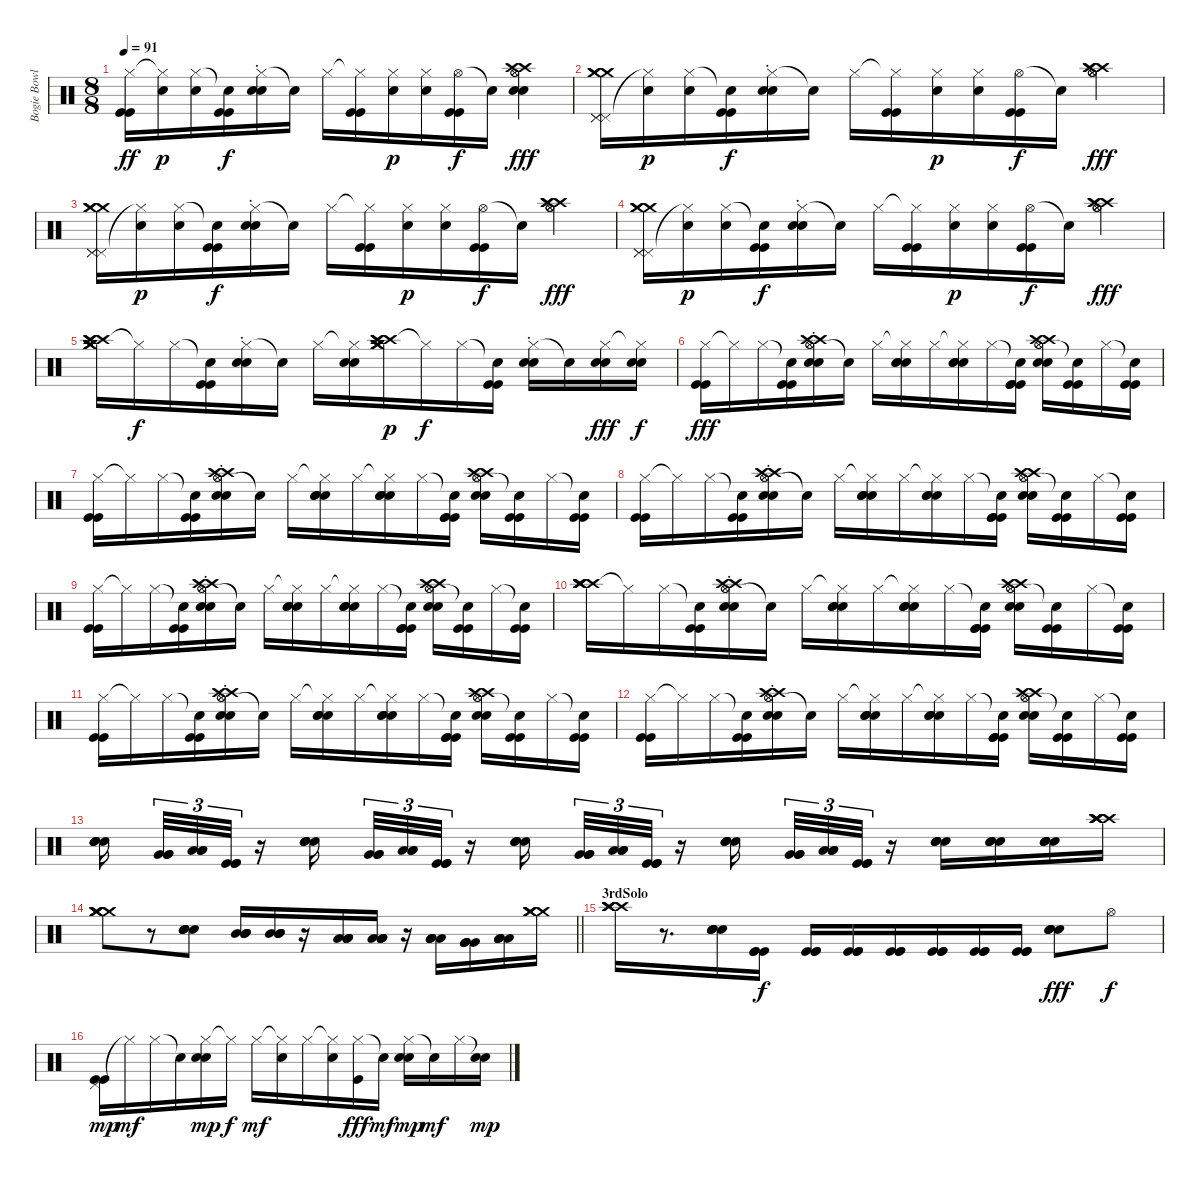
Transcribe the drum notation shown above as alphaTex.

\track ("Bogie Bowles Drums" "Bogie Bowl") {instrument percussion}
\staff {score}
\articulation defaults
\ts (8 8)
\tempo 91
\clef neutral
\ks c
("Hi-Hat (closed)" "Kick (hit)" "Kick (hit)").16{dy ff} ("Hi-Hat (closed)"{t} "Snare (hit) 2").16{dy p} ("Hi-Hat (closed)" "Snare (hit) 2").16 ("Snare (hit)"{t} "Kick (hit)" "Kick (hit)").16{dy f} ("Hi-Hat (closed)" "Snare (hit) 2"{st} "Snare (hit) 2").16 "Snare (hit)"{t}.16 "Hi-Hat (closed)".16 ("Hi-Hat (closed)"{t} "Kick (hit)" "Kick (hit)").16 ("Hi-Hat (closed)" "Snare (hit) 2").16{dy p} ("Hi-Hat (closed)" "Snare (hit) 2").16 ("Hi-Hat (open)" "Kick (hit)" "Kick (hit)").16{dy f} "Snare (hit)"{t}.16 ("Crash high (hit)" "Crash high (hit)" "Hi-Hat (open)" "Hi-Hat (open)" "Snare (hit) 2" "Snare (hit) 2").4{dy fff} |
("Pedal Hi-Hat (hit)" "Pedal Hi-Hat (hit)" "Pedal Hi-Hat (hit)" "Crash medium (hit)" "Crash medium (hit)" "Crash medium (hit)").16 ("Hi-Hat (closed)"{t} "Snare (hit) 2").16{dy p} ("Hi-Hat (closed)" "Snare (hit) 2").16 ("Snare (hit)"{t} "Kick (hit)" "Kick (hit)").16{dy f} ("Hi-Hat (closed)" "Snare (hit) 2"{st} "Snare (hit) 2").16 "Snare (hit)"{t}.16 "Hi-Hat (closed)".16 ("Hi-Hat (closed)"{t} "Kick (hit)" "Kick (hit)").16 ("Hi-Hat (closed)" "Snare (hit) 2").16{dy p} ("Hi-Hat (closed)" "Snare (hit) 2").16 ("Hi-Hat (open)" "Kick (hit)" "Kick (hit)").16{dy f} "Snare (hit)"{t}.16 ("Hi-Hat (open)" "Hi-Hat (open)" "Hi-Hat (open)" "Crash high (hit)" "Crash high (hit)" "Crash high (hit)").4{dy fff} |
("Pedal Hi-Hat (hit)" "Pedal Hi-Hat (hit)" "Pedal Hi-Hat (hit)" "Crash medium (hit)" "Crash medium (hit)" "Crash medium (hit)").16 ("Hi-Hat (closed)"{t} "Snare (hit) 2").16{dy p} ("Hi-Hat (closed)" "Snare (hit) 2").16 ("Snare (hit)"{t} "Kick (hit)" "Kick (hit)").16{dy f} ("Hi-Hat (closed)" "Snare (hit) 2"{st} "Snare (hit) 2").16 "Snare (hit)"{t}.16 "Hi-Hat (closed)".16 ("Hi-Hat (closed)"{t} "Kick (hit)" "Kick (hit)").16 ("Hi-Hat (closed)" "Snare (hit) 2").16{dy p} ("Hi-Hat (closed)" "Snare (hit) 2").16 ("Hi-Hat (open)" "Kick (hit)" "Kick (hit)").16{dy f} "Snare (hit)"{t}.16 ("Hi-Hat (open)" "Hi-Hat (open)" "Hi-Hat (open)" "Crash high (hit)" "Crash high (hit)" "Crash high (hit)").4{dy fff} |
("Pedal Hi-Hat (hit)" "Pedal Hi-Hat (hit)" "Pedal Hi-Hat (hit)" "Crash medium (hit)" "Crash medium (hit)" "Crash medium (hit)").16 ("Hi-Hat (closed)"{t} "Snare (hit) 2").16{dy p} ("Hi-Hat (closed)" "Snare (hit) 2").16 ("Snare (hit)"{t} "Kick (hit)" "Kick (hit)").16{dy f} ("Hi-Hat (closed)" "Snare (hit) 2"{st} "Snare (hit) 2").16 "Snare (hit)"{t}.16 "Hi-Hat (closed)".16 ("Hi-Hat (closed)"{t} "Kick (hit)" "Kick (hit)").16 ("Hi-Hat (closed)" "Snare (hit) 2").16{dy p} ("Hi-Hat (closed)" "Snare (hit) 2").16 ("Hi-Hat (open)" "Kick (hit)" "Kick (hit)").16{dy f} "Snare (hit)"{t}.16 ("Hi-Hat (open)" "Hi-Hat (open)" "Hi-Hat (open)" "Crash high (hit)" "Crash high (hit)" "Crash high (hit)").4{dy fff} |
("Crash high (hit)" "Crash high (hit)" "Crash high (hit)" "Crash medium (hit)" "Crash medium (hit)" "Crash medium (hit)").16 "Hi-Hat (closed)"{t}.16{dy f} "Hi-Hat (closed)".16 ("Snare (hit)"{t} "Kick (hit)" "Kick (hit)").16 ("Hi-Hat (closed)" "Snare (hit) 2"{st} "Snare (hit) 2").16 "Snare (hit)"{t}.16 "Hi-Hat (closed)".16 ("Hi-Hat (closed)"{t} "Snare (hit) 2" "Snare (hit) 2").16 ("Crash high (hit)" "Crash high (hit)" "Crash high (hit)" "Crash medium (hit)" "Crash medium (hit)" "Crash medium (hit)").16{dy p} "Hi-Hat (closed)"{t}.16{dy f} "Hi-Hat (closed)".16 ("Snare (hit)"{t} "Kick (hit)" "Kick (hit)").16 ("Hi-Hat (closed)" "Snare (hit) 2"{st} "Snare (hit) 2").16 "Snare (hit)"{t}.16 ("Hi-Hat (closed)" "Snare (hit) 2" "Snare (hit) 2").16{dy fff} ("Hi-Hat (closed)"{t} "Snare (hit) 2" "Snare (hit) 2").16{dy f} |
("Hi-Hat (closed)" "Kick (hit)" "Kick (hit)").16{dy fff volume 14} "Hi-Hat (closed)"{t}.16 "Hi-Hat (closed)".16 ("Snare (hit)"{t} "Kick (hit)" "Kick (hit)").16 ("Hi-Hat (open)" "Hi-Hat (open)" "Crash high (hit)"{st} "Crash high (hit)" "Snare (hit) 2" "Snare (hit) 2").16 "Snare (hit)"{t}.16 "Hi-Hat (closed)".16 ("Hi-Hat (closed)"{t} "Snare (hit) 2" "Snare (hit) 2" "Snare (hit) 2").16 "Hi-Hat (closed)".16 ("Hi-Hat (closed)"{t} "Snare (hit) 2" "Snare (hit) 2" "Snare (hit) 2").16 "Hi-Hat (closed)".16 ("Snare (hit)"{t} "Kick (hit)" "Kick (hit)" "Kick (hit)").16 ("Hi-Hat (open)" "Hi-Hat (open)" "Crash high (hit)" "Crash high (hit)" "Snare (hit) 2" "Snare (hit) 2").16 ("Snare (hit)"{t} "Kick (hit)" "Kick (hit)").16 "Hi-Hat (closed)".16 ("Snare (hit)"{t} "Kick (hit)" "Kick (hit)").16 |
("Hi-Hat (closed)" "Kick (hit)" "Kick (hit)").16 "Hi-Hat (closed)"{t}.16 "Hi-Hat (closed)".16 ("Snare (hit)"{t} "Kick (hit)" "Kick (hit)").16 ("Hi-Hat (open)" "Hi-Hat (open)" "Crash high (hit)"{st} "Crash high (hit)" "Snare (hit) 2" "Snare (hit) 2").16 "Snare (hit)"{t}.16 "Hi-Hat (closed)".16 ("Hi-Hat (closed)"{t} "Snare (hit) 2" "Snare (hit) 2" "Snare (hit) 2").16 "Hi-Hat (closed)".16 ("Hi-Hat (closed)"{t} "Snare (hit) 2" "Snare (hit) 2" "Snare (hit) 2").16 "Hi-Hat (closed)".16 ("Snare (hit)"{t} "Kick (hit)" "Kick (hit)" "Kick (hit)").16 ("Hi-Hat (open)" "Hi-Hat (open)" "Crash high (hit)" "Crash high (hit)" "Snare (hit) 2" "Snare (hit) 2").16 ("Snare (hit)"{t} "Kick (hit)" "Kick (hit)").16 "Hi-Hat (closed)".16 ("Snare (hit)"{t} "Kick (hit)" "Kick (hit)").16 |
("Hi-Hat (closed)" "Kick (hit)" "Kick (hit)").16 "Hi-Hat (closed)"{t}.16 "Hi-Hat (closed)".16 ("Snare (hit)"{t} "Kick (hit)" "Kick (hit)").16 ("Hi-Hat (open)" "Hi-Hat (open)" "Crash high (hit)"{st} "Crash high (hit)" "Snare (hit) 2" "Snare (hit) 2").16 "Snare (hit)"{t}.16 "Hi-Hat (closed)".16 ("Hi-Hat (closed)"{t} "Snare (hit) 2" "Snare (hit) 2" "Snare (hit) 2").16 "Hi-Hat (closed)".16 ("Hi-Hat (closed)"{t} "Snare (hit) 2" "Snare (hit) 2" "Snare (hit) 2").16 "Hi-Hat (closed)".16 ("Snare (hit)"{t} "Kick (hit)" "Kick (hit)" "Kick (hit)").16 ("Hi-Hat (open)" "Hi-Hat (open)" "Crash high (hit)" "Crash high (hit)" "Snare (hit) 2" "Snare (hit) 2").16 ("Snare (hit)"{t} "Kick (hit)" "Kick (hit)").16 "Hi-Hat (closed)".16 ("Snare (hit)"{t} "Kick (hit)" "Kick (hit)").16 |
("Hi-Hat (closed)" "Kick (hit)" "Kick (hit)").16 "Hi-Hat (closed)"{t}.16 "Hi-Hat (closed)".16 ("Snare (hit)"{t} "Kick (hit)" "Kick (hit)").16 ("Hi-Hat (open)" "Hi-Hat (open)" "Crash high (hit)"{st} "Crash high (hit)" "Snare (hit) 2" "Snare (hit) 2").16 "Snare (hit)"{t}.16 "Hi-Hat (closed)".16 ("Hi-Hat (closed)"{t} "Snare (hit) 2" "Snare (hit) 2" "Snare (hit) 2").16 "Hi-Hat (closed)".16 ("Hi-Hat (closed)"{t} "Snare (hit) 2" "Snare (hit) 2" "Snare (hit) 2").16 "Hi-Hat (closed)".16 ("Snare (hit)"{t} "Kick (hit)" "Kick (hit)" "Kick (hit)").16 ("Hi-Hat (open)" "Hi-Hat (open)" "Crash high (hit)" "Crash high (hit)" "Snare (hit) 2" "Snare (hit) 2").16 ("Snare (hit)"{t} "Kick (hit)" "Kick (hit)").16 "Hi-Hat (closed)".16 ("Snare (hit)"{t} "Kick (hit)" "Kick (hit)").16 |
("Crash high (hit)" "Crash high (hit)" "Crash high (hit)" "Crash high (hit)" "Crash high (hit)" "Crash high (hit)").16 "Hi-Hat (closed)"{t}.16 "Hi-Hat (closed)".16 ("Snare (hit)"{t} "Kick (hit)" "Kick (hit)").16 ("Hi-Hat (open)" "Hi-Hat (open)" "Crash high (hit)"{st} "Crash high (hit)" "Snare (hit) 2" "Snare (hit) 2").16 "Snare (hit)"{t}.16 "Hi-Hat (closed)".16 ("Hi-Hat (closed)"{t} "Snare (hit) 2" "Snare (hit) 2" "Snare (hit) 2").16 "Hi-Hat (closed)".16 ("Hi-Hat (closed)"{t} "Snare (hit) 2" "Snare (hit) 2" "Snare (hit) 2").16 "Hi-Hat (closed)".16 ("Snare (hit)"{t} "Kick (hit)" "Kick (hit)" "Kick (hit)").16 ("Hi-Hat (open)" "Hi-Hat (open)" "Crash high (hit)" "Crash high (hit)" "Snare (hit) 2" "Snare (hit) 2").16 ("Snare (hit)"{t} "Kick (hit)" "Kick (hit)").16 "Hi-Hat (closed)".16 ("Snare (hit)"{t} "Kick (hit)" "Kick (hit)").16 |
("Hi-Hat (closed)" "Kick (hit)" "Kick (hit)").16 "Hi-Hat (closed)"{t}.16 "Hi-Hat (closed)".16 ("Snare (hit)"{t} "Kick (hit)" "Kick (hit)").16 ("Hi-Hat (open)" "Hi-Hat (open)" "Crash high (hit)"{st} "Crash high (hit)" "Snare (hit) 2" "Snare (hit) 2").16 "Snare (hit)"{t}.16 "Hi-Hat (closed)".16 ("Hi-Hat (closed)"{t} "Snare (hit) 2" "Snare (hit) 2" "Snare (hit) 2").16 "Hi-Hat (closed)".16 ("Hi-Hat (closed)"{t} "Snare (hit) 2" "Snare (hit) 2" "Snare (hit) 2").16 "Hi-Hat (closed)".16 ("Snare (hit)"{t} "Kick (hit)" "Kick (hit)" "Kick (hit)").16 ("Hi-Hat (open)" "Hi-Hat (open)" "Crash high (hit)" "Crash high (hit)" "Snare (hit) 2" "Snare (hit) 2").16 ("Snare (hit)"{t} "Kick (hit)" "Kick (hit)").16 "Hi-Hat (closed)".16 ("Snare (hit)"{t} "Kick (hit)" "Kick (hit)").16 |
("Hi-Hat (closed)" "Kick (hit)" "Kick (hit)").16 "Hi-Hat (closed)"{t}.16 "Hi-Hat (closed)".16 ("Snare (hit)"{t} "Kick (hit)" "Kick (hit)").16 ("Hi-Hat (open)" "Hi-Hat (open)" "Crash high (hit)"{st} "Crash high (hit)" "Snare (hit) 2" "Snare (hit) 2").16 "Snare (hit)"{t}.16 "Hi-Hat (closed)".16 ("Hi-Hat (closed)"{t} "Snare (hit) 2" "Snare (hit) 2" "Snare (hit) 2").16 "Hi-Hat (closed)".16 ("Hi-Hat (closed)"{t} "Snare (hit) 2" "Snare (hit) 2" "Snare (hit) 2").16 "Hi-Hat (closed)".16 ("Snare (hit)"{t} "Kick (hit)" "Kick (hit)" "Kick (hit)").16 ("Hi-Hat (open)" "Hi-Hat (open)" "Crash high (hit)" "Crash high (hit)" "Snare (hit) 2" "Snare (hit) 2").16 ("Snare (hit)"{t} "Kick (hit)" "Kick (hit)").16 "Hi-Hat (closed)".16 ("Snare (hit)"{t} "Kick (hit)" "Kick (hit)").16 |
("Snare (hit) 2" "Snare (hit) 2" "Snare (hit) 2" "Snare (hit) 2").16{beam splitsecondary} ("Very Low Tom (hit)" "Very Low Tom (hit)" "Very Low Tom (hit)").32{tu (3 2)} ("Low Floor Tom (hit)" "Low Floor Tom (hit)" "Low Floor Tom (hit)").32{tu (3 2)} ("Kick (hit)" "Kick (hit)" "Kick (hit)").32{tu (3 2)} r.16 ("Snare (hit) 2" "Snare (hit) 2" "Snare (hit) 2" "Snare (hit) 2").16 ("Very Low Tom (hit)" "Very Low Tom (hit)" "Very Low Tom (hit)").32{tu (3 2)} ("Low Floor Tom (hit)" "Low Floor Tom (hit)" "Low Floor Tom (hit)").32{tu (3 2)} ("Kick (hit)" "Kick (hit)" "Kick (hit)").32{tu (3 2)} r.16 ("Snare (hit) 2" "Snare (hit) 2" "Snare (hit) 2" "Snare (hit) 2").16{beam splitsecondary} ("Very Low Tom (hit)" "Very Low Tom (hit)" "Very Low Tom (hit)").32{tu (3 2)} ("Low Floor Tom (hit)" "Low Floor Tom (hit)" "Low Floor Tom (hit)").32{tu (3 2)} ("Kick (hit)" "Kick (hit)" "Kick (hit)").32{tu (3 2)} r.16 ("Snare (hit) 2" "Snare (hit) 2" "Snare (hit) 2" "Snare (hit) 2").16 ("Very Low Tom (hit)" "Very Low Tom (hit)" "Very Low Tom (hit)").32{tu (3 2)} ("Low Floor Tom (hit)" "Low Floor Tom (hit)" "Low Floor Tom (hit)").32{tu (3 2)} ("Kick (hit)" "Kick (hit)" "Kick (hit)").32{tu (3 2)} r.16 ("Snare (hit) 2" "Snare (hit) 2" "Snare (hit) 2" "Snare (hit) 2").16 ("Snare (hit) 2" "Snare (hit) 2" "Snare (hit) 2" "Snare (hit) 2").16 ("Snare (hit) 2" "Snare (hit) 2" "Snare (hit) 2" "Snare (hit) 2").16 ("Crash high (hit)" "Crash high (hit)" "Crash high (hit)" "Crash high (hit)" "Crash high (hit)" "Crash high (hit)").16 |
\barLineRight lightlight
("Crash medium (hit)" "Crash medium (hit)" "Crash medium (hit)" "Crash medium (hit)" "Crash medium (hit)" "Crash medium (hit)").8 r.8 ("Snare (hit) 2" "Snare (hit) 2" "Snare (hit) 2" "Snare (hit) 2").8 ("Mid Tom (hit)" "Mid Tom (hit)" "Mid Tom (hit)" "Mid Tom (hit)").16 ("Mid Tom (hit)" "Mid Tom (hit)" "Mid Tom (hit)" "Mid Tom (hit)").16 r.16 ("Low Tom (hit)" "Low Tom (hit)" "Low Tom (hit)" "Low Tom (hit)").16 ("Low Tom (hit)" "Low Tom (hit)" "Low Tom (hit)" "Low Tom (hit)").16 r.16 ("Low Tom (hit)" "Low Tom (hit)" "Low Tom (hit)" "Low Tom (hit)").16 ("Very Low Tom (hit)" "Very Low Tom (hit)" "Very Low Tom (hit)" "Very Low Tom (hit)").16 ("Low Floor Tom (hit)" "Low Floor Tom (hit)" "Low Floor Tom (hit)" "Low Floor Tom (hit)").16 ("Crash medium (hit)" "Crash medium (hit)" "Crash medium (hit)" "Crash medium (hit)").16 |
\section ("" "3rdSolo")
("Crash high (hit)" "Crash high (hit)" "Crash high (hit)" "Crash high (hit)").16 r.8{d} ("Snare (hit) 2" "Snare (hit) 2" "Snare (hit) 2" "Snare (hit) 2").16 ("Kick (hit)" "Kick (hit)" "Kick (hit)").16{dy f} ("Kick (hit)" "Kick (hit)" "Kick (hit)").16 ("Kick (hit)" "Kick (hit)" "Kick (hit)").16 ("Kick (hit)" "Kick (hit)" "Kick (hit)").16 ("Kick (hit)" "Kick (hit)" "Kick (hit)").16 ("Kick (hit)" "Kick (hit)" "Kick (hit)").16 ("Kick (hit)" "Kick (hit)" "Kick (hit)").16 ("Snare (hit) 2" "Snare (hit) 2" "Snare (hit) 2" "Snare (hit) 2").8{dy fff} "Hi-Hat (open)".8{dy f} |
("Pedal Hi-Hat (hit)" "Kick (hit)" "Kick (hit)").16{dy mp} "Hi-Hat (closed)"{t}.16{dy mf} "Hi-Hat (closed)".16 "Snare (hit)"{t}.16 ("Hi-Hat (closed)" "Snare (hit) 2" "Snare (hit) 2").16{dy mp} "Hi-Hat (closed)"{t}.16{dy f} "Hi-Hat (closed)".16{dy mf} ("Hi-Hat (closed)"{t} "Snare (hit) 2").16 "Hi-Hat (closed)".16 ("Hi-Hat (closed)"{t} "Snare (hit) 2").16 ("Hi-Hat (closed)" "Kick (hit)").16{dy fff} "Snare (hit)"{t}.16{dy mf} ("Hi-Hat (closed)" "Snare (hit) 2" "Snare (hit) 2").16{dy mp} "Snare (hit)"{t}.16{dy mf} "Hi-Hat (closed)".16 ("Snare (hit)"{t} "Snare (hit) 2").16{dy mp}
